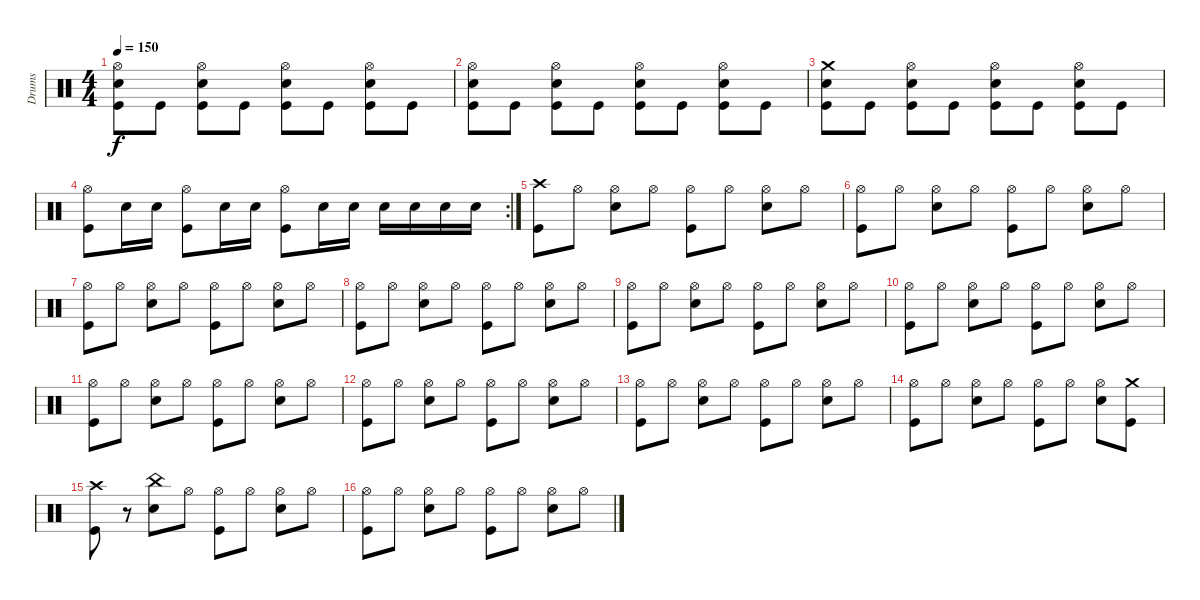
\track ("Drums" "Drums") {instrument percussion}
\staff {score}
\articulation defaults
\ts (4 4)
\tempo 150
\clef neutral
\ks c
("Hi-Hat (open)" "Snare (hit) 2" "Kick (hit)").8{dy f} "Kick (hit)".8 ("Hi-Hat (open)" "Snare (hit) 2" "Kick (hit)").8 "Kick (hit)".8 ("Hi-Hat (open)" "Snare (hit) 2" "Kick (hit)").8 "Kick (hit)".8 ("Hi-Hat (open)" "Snare (hit) 2" "Kick (hit)").8 "Kick (hit)".8 |
("Hi-Hat (open)" "Snare (hit) 2" "Kick (hit)").8 "Kick (hit)".8 ("Hi-Hat (open)" "Snare (hit) 2" "Kick (hit)").8 "Kick (hit)".8 ("Hi-Hat (open)" "Snare (hit) 2" "Kick (hit)").8 "Kick (hit)".8 ("Hi-Hat (open)" "Snare (hit) 2" "Kick (hit)").8 "Kick (hit)".8 |
("Crash medium (hit)" "Snare (hit) 2" "Kick (hit)").8 "Kick (hit)".8 ("Hi-Hat (open)" "Snare (hit) 2" "Kick (hit)").8 "Kick (hit)".8 ("Hi-Hat (open)" "Snare (hit) 2" "Kick (hit)").8 "Kick (hit)".8 ("Hi-Hat (open)" "Snare (hit) 2" "Kick (hit)").8 "Kick (hit)".8 |
\rc 2
("Hi-Hat (open)" "Kick (hit)").8 "Snare (hit) 2".16 "Snare (hit) 2".16 ("Hi-Hat (open)" "Kick (hit)").8 "Snare (hit) 2".16 "Snare (hit) 2".16 ("Hi-Hat (open)" "Kick (hit)").8 "Snare (hit) 2".16 "Snare (hit) 2".16 "Snare (hit) 2".16 "Snare (hit) 2".16 "Snare (hit) 2".16 "Snare (hit) 2".16 |
("Crash high (hit)" "Kick (hit)").8 "Hi-Hat (open)".8 ("Hi-Hat (open)" "Snare (hit) 2").8 "Hi-Hat (open)".8 ("Hi-Hat (open)" "Kick (hit)").8 "Hi-Hat (open)".8 ("Hi-Hat (open)" "Snare (hit) 2").8 "Hi-Hat (open)".8 |
("Hi-Hat (open)" "Kick (hit)").8 "Hi-Hat (open)".8 ("Hi-Hat (open)" "Snare (hit) 2").8 "Hi-Hat (open)".8 ("Hi-Hat (open)" "Kick (hit)").8 "Hi-Hat (open)".8 ("Hi-Hat (open)" "Snare (hit) 2").8 "Hi-Hat (open)".8 |
("Hi-Hat (open)" "Kick (hit)").8 "Hi-Hat (open)".8 ("Hi-Hat (open)" "Snare (hit) 2").8 "Hi-Hat (open)".8 ("Hi-Hat (open)" "Kick (hit)").8 "Hi-Hat (open)".8 ("Hi-Hat (open)" "Snare (hit) 2").8 "Hi-Hat (open)".8 |
("Hi-Hat (open)" "Kick (hit)").8 "Hi-Hat (open)".8 ("Hi-Hat (open)" "Snare (hit) 2").8 "Hi-Hat (open)".8 ("Hi-Hat (open)" "Kick (hit)").8 "Hi-Hat (open)".8 ("Hi-Hat (open)" "Snare (hit) 2").8 "Hi-Hat (open)".8 |
("Hi-Hat (open)" "Kick (hit)").8 "Hi-Hat (open)".8 ("Hi-Hat (open)" "Snare (hit) 2").8 "Hi-Hat (open)".8 ("Hi-Hat (open)" "Kick (hit)").8 "Hi-Hat (open)".8 ("Hi-Hat (open)" "Snare (hit) 2").8 "Hi-Hat (open)".8 |
("Hi-Hat (open)" "Kick (hit)").8 "Hi-Hat (open)".8 ("Hi-Hat (open)" "Snare (hit) 2").8 "Hi-Hat (open)".8 ("Hi-Hat (open)" "Kick (hit)").8 "Hi-Hat (open)".8 ("Hi-Hat (open)" "Snare (hit) 2").8 "Hi-Hat (open)".8 |
("Hi-Hat (open)" "Kick (hit)").8 "Hi-Hat (open)".8 ("Hi-Hat (open)" "Snare (hit) 2").8 "Hi-Hat (open)".8 ("Hi-Hat (open)" "Kick (hit)").8 "Hi-Hat (open)".8 ("Hi-Hat (open)" "Snare (hit) 2").8 "Hi-Hat (open)".8 |
("Hi-Hat (open)" "Kick (hit)").8 "Hi-Hat (open)".8 ("Hi-Hat (open)" "Snare (hit) 2").8 "Hi-Hat (open)".8 ("Hi-Hat (open)" "Kick (hit)").8 "Hi-Hat (open)".8 ("Hi-Hat (open)" "Snare (hit) 2").8 "Hi-Hat (open)".8 |
("Hi-Hat (open)" "Kick (hit)").8 "Hi-Hat (open)".8 ("Hi-Hat (open)" "Snare (hit) 2").8 "Hi-Hat (open)".8 ("Hi-Hat (open)" "Kick (hit)").8 "Hi-Hat (open)".8 ("Hi-Hat (open)" "Snare (hit) 2").8 "Hi-Hat (open)".8 |
("Hi-Hat (open)" "Kick (hit)").8 "Hi-Hat (open)".8 ("Hi-Hat (open)" "Snare (hit) 2").8 "Hi-Hat (open)".8 ("Hi-Hat (open)" "Kick (hit)").8 "Hi-Hat (open)".8 ("Hi-Hat (open)" "Snare (hit) 2").8 ("Crash medium (hit)" "Kick (hit)").8 |
("Crash high (hit)" "Kick (hit)").8 r.8 ("China (hit)" "Snare (hit) 2").8 "Hi-Hat (open)".8 ("Hi-Hat (open)" "Kick (hit)").8 "Hi-Hat (open)".8 ("Hi-Hat (open)" "Snare (hit) 2").8 "Hi-Hat (open)".8 |
("Hi-Hat (open)" "Kick (hit)").8 "Hi-Hat (open)".8 ("Hi-Hat (open)" "Snare (hit) 2").8 "Hi-Hat (open)".8 ("Hi-Hat (open)" "Kick (hit)").8 "Hi-Hat (open)".8 ("Hi-Hat (open)" "Snare (hit) 2").8 "Hi-Hat (open)".8
